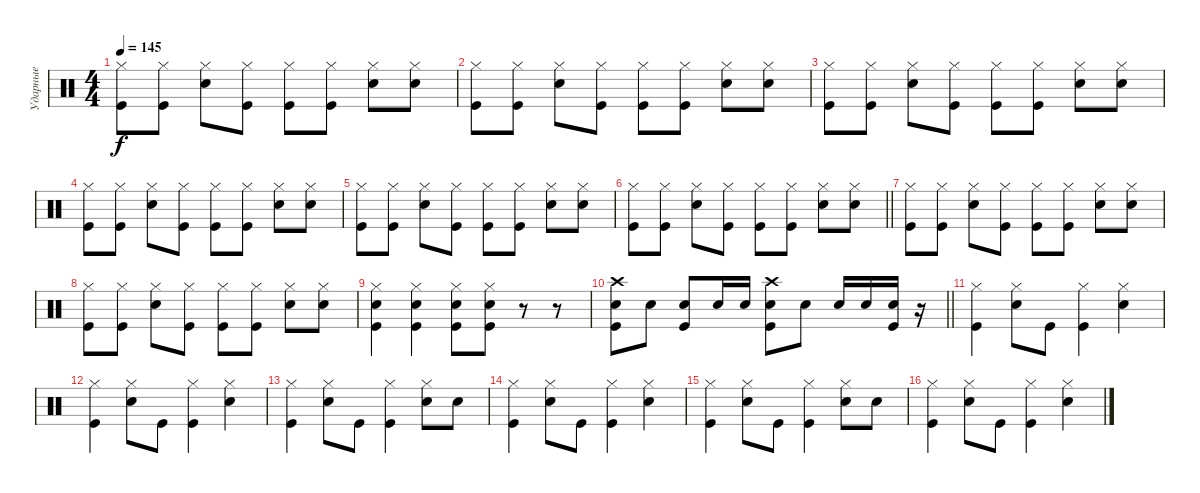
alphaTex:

\track ("Ударные" "Ударные") {instrument percussion bank 125}
\staff {score}
\articulation defaults
\ts (4 4)
\tempo 145
\clef neutral
\ks c
("Hi-Hat (closed)" "Kick (hit)").8{dy f} ("Hi-Hat (closed)" "Kick (hit)").8 ("Hi-Hat (closed)" "Snare (hit) 2").8 ("Hi-Hat (closed)" "Kick (hit)").8 ("Hi-Hat (closed)" "Kick (hit)").8 ("Hi-Hat (closed)" "Kick (hit)").8 ("Hi-Hat (closed)" "Snare (hit) 2").8 ("Hi-Hat (closed)" "Snare (hit) 2").8 |
("Hi-Hat (closed)" "Kick (hit)").8 ("Hi-Hat (closed)" "Kick (hit)").8 ("Hi-Hat (closed)" "Snare (hit) 2").8 ("Hi-Hat (closed)" "Kick (hit)").8 ("Hi-Hat (closed)" "Kick (hit)").8 ("Hi-Hat (closed)" "Kick (hit)").8 ("Hi-Hat (closed)" "Snare (hit) 2").8 ("Hi-Hat (closed)" "Snare (hit) 2").8 |
("Hi-Hat (closed)" "Kick (hit)").8 ("Hi-Hat (closed)" "Kick (hit)").8 ("Hi-Hat (closed)" "Snare (hit) 2").8 ("Hi-Hat (closed)" "Kick (hit)").8 ("Hi-Hat (closed)" "Kick (hit)").8 ("Hi-Hat (closed)" "Kick (hit)").8 ("Hi-Hat (closed)" "Snare (hit) 2").8 ("Hi-Hat (closed)" "Snare (hit) 2").8 |
("Hi-Hat (closed)" "Kick (hit)").8 ("Hi-Hat (closed)" "Kick (hit)").8 ("Hi-Hat (closed)" "Snare (hit) 2").8 ("Hi-Hat (closed)" "Kick (hit)").8 ("Hi-Hat (closed)" "Kick (hit)").8 ("Hi-Hat (closed)" "Kick (hit)").8 ("Hi-Hat (closed)" "Snare (hit) 2").8 ("Hi-Hat (closed)" "Snare (hit) 2").8 |
("Hi-Hat (closed)" "Kick (hit)").8 ("Hi-Hat (closed)" "Kick (hit)").8 ("Hi-Hat (closed)" "Snare (hit) 2").8 ("Hi-Hat (closed)" "Kick (hit)").8 ("Hi-Hat (closed)" "Kick (hit)").8 ("Hi-Hat (closed)" "Kick (hit)").8 ("Hi-Hat (closed)" "Snare (hit) 2").8 ("Hi-Hat (closed)" "Snare (hit) 2").8 |
\barLineRight lightlight
("Hi-Hat (closed)" "Kick (hit)").8 ("Hi-Hat (closed)" "Kick (hit)").8 ("Hi-Hat (closed)" "Snare (hit) 2").8 ("Hi-Hat (closed)" "Kick (hit)").8 ("Hi-Hat (closed)" "Kick (hit)").8 ("Hi-Hat (closed)" "Kick (hit)").8 ("Hi-Hat (closed)" "Snare (hit) 2").8 ("Hi-Hat (closed)" "Snare (hit) 2").8 |
("Hi-Hat (closed)" "Kick (hit)").8 ("Hi-Hat (closed)" "Kick (hit)").8 ("Hi-Hat (closed)" "Snare (hit) 2").8 ("Hi-Hat (closed)" "Kick (hit)").8 ("Hi-Hat (closed)" "Kick (hit)").8 ("Hi-Hat (closed)" "Kick (hit)").8 ("Hi-Hat (closed)" "Snare (hit) 2").8 ("Hi-Hat (closed)" "Snare (hit) 2").8 |
("Hi-Hat (closed)" "Kick (hit)").8 ("Hi-Hat (closed)" "Kick (hit)").8 ("Hi-Hat (closed)" "Snare (hit) 2").8 ("Hi-Hat (closed)" "Kick (hit)").8 ("Hi-Hat (closed)" "Kick (hit)").8 ("Hi-Hat (closed)" "Kick (hit)").8 ("Hi-Hat (closed)" "Snare (hit) 2").8 ("Hi-Hat (closed)" "Snare (hit) 2").8 |
("Hi-Hat (closed)" "Snare (hit) 2" "Kick (hit)").4 ("Hi-Hat (closed)" "Snare (hit) 2" "Kick (hit)").4 ("Hi-Hat (closed)" "Snare (hit) 2" "Kick (hit)").8 ("Hi-Hat (closed)" "Snare (hit) 2" "Kick (hit)").8 r.8 r.8 |
\barLineRight lightlight
("Crash high (hit)" "Snare (hit) 2" "Kick (hit)").8 "Snare (hit) 2".8 ("Snare (hit) 2" "Kick (hit)").8 "Snare (hit) 2".16 "Snare (hit) 2".16 ("Crash high (hit)" "Snare (hit) 2" "Kick (hit)").8 "Snare (hit) 2".8 "Snare (hit) 2".16 "Snare (hit) 2".16 ("Snare (hit) 2" "Kick (hit)").16 r.16 |
("Hi-Hat (closed)" "Kick (hit)").4 ("Hi-Hat (closed)" "Snare (hit) 2").8 "Kick (hit)".8 ("Hi-Hat (closed)" "Kick (hit)").4 ("Hi-Hat (closed)" "Snare (hit) 2").4 |
("Hi-Hat (closed)" "Kick (hit)").4 ("Hi-Hat (closed)" "Snare (hit) 2").8 "Kick (hit)".8 ("Hi-Hat (closed)" "Kick (hit)").4 ("Hi-Hat (closed)" "Snare (hit) 2").4 |
("Hi-Hat (closed)" "Kick (hit)").4 ("Hi-Hat (closed)" "Snare (hit) 2").8 "Kick (hit)".8 ("Hi-Hat (closed)" "Kick (hit)").4 ("Hi-Hat (closed)" "Snare (hit) 2").8 "Snare (hit) 2".8 |
("Hi-Hat (closed)" "Kick (hit)").4 ("Hi-Hat (closed)" "Snare (hit) 2").8 "Kick (hit)".8 ("Hi-Hat (closed)" "Kick (hit)").4 ("Hi-Hat (closed)" "Snare (hit) 2").4 |
("Hi-Hat (closed)" "Kick (hit)").4 ("Hi-Hat (closed)" "Snare (hit) 2").8 "Kick (hit)".8 ("Hi-Hat (closed)" "Kick (hit)").4 ("Hi-Hat (closed)" "Snare (hit) 2").8 "Snare (hit) 2".8 |
("Hi-Hat (closed)" "Kick (hit)").4 ("Hi-Hat (closed)" "Snare (hit) 2").8 "Kick (hit)".8 ("Hi-Hat (closed)" "Kick (hit)").4 ("Hi-Hat (closed)" "Snare (hit) 2").4
